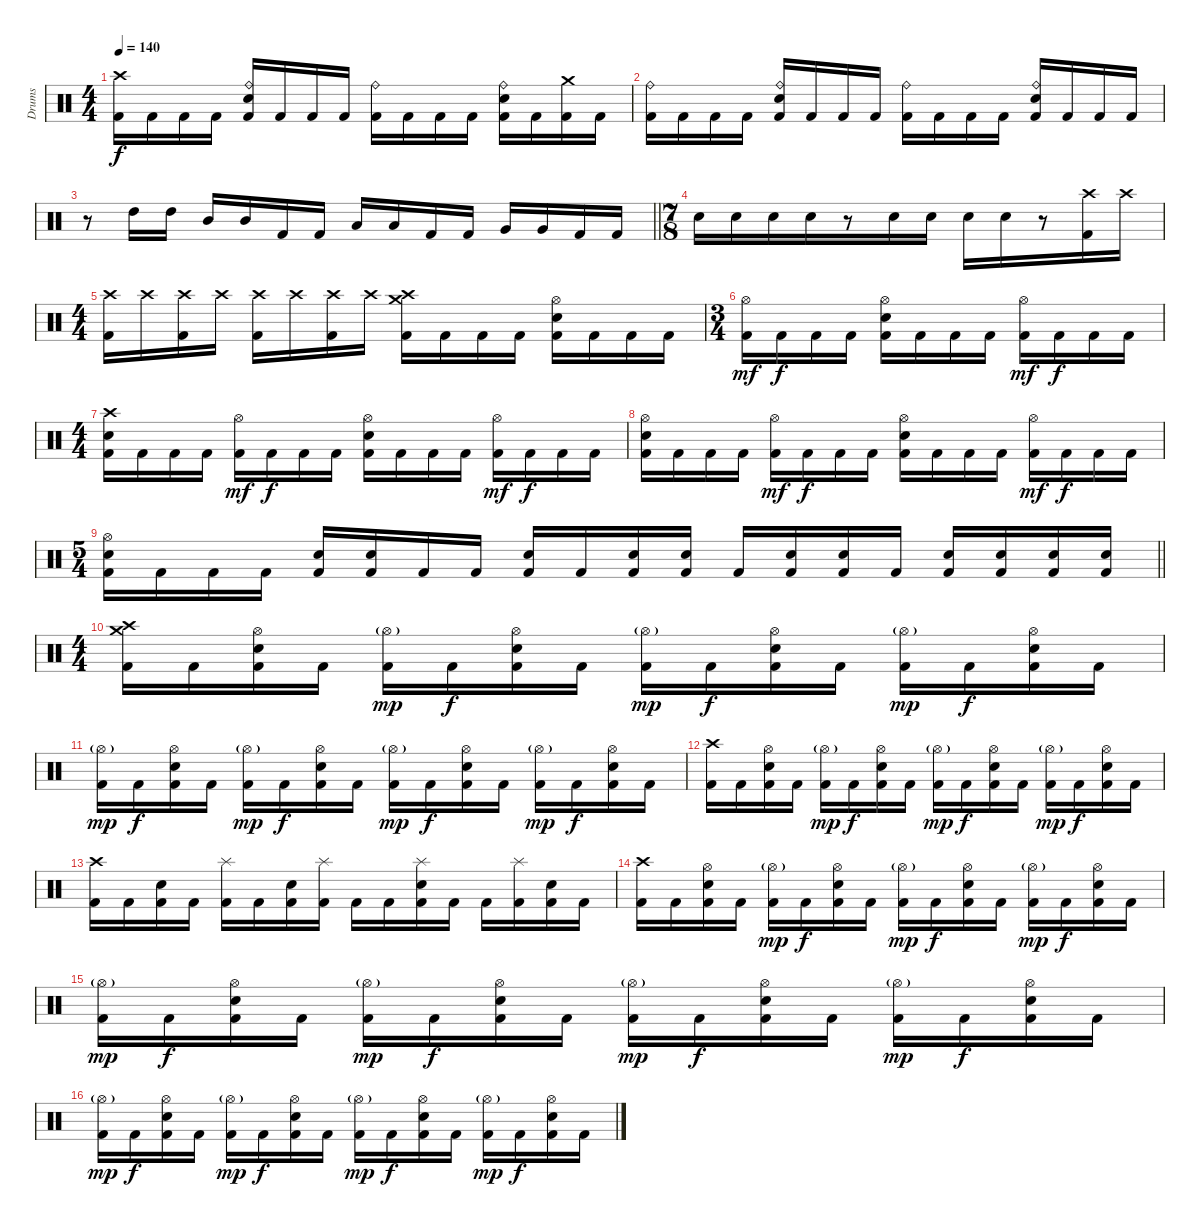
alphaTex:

\track ("Drums" "Drums") {instrument percussion}
\staff {score}
\articulation defaults
\ts (4 4)
\tempo 140
\clef neutral
\ks c
("Crash high (hit)" "Kick (hit) 2").16{dy f} "Kick (hit) 2".16 "Kick (hit) 2".16 "Kick (hit) 2".16 ("Ride (bell)" "Electric Snare (hit)" "Kick (hit) 2").16 "Kick (hit) 2".16 "Kick (hit) 2".16 "Kick (hit) 2".16 ("Ride (bell)" "Kick (hit) 2").16 "Kick (hit) 2".16 "Kick (hit) 2".16 "Kick (hit) 2".16 ("Ride (bell)" "Electric Snare (hit)" "Kick (hit) 2").16 "Kick (hit) 2".16 ("Crash medium (hit)" "Kick (hit) 2").16 "Kick (hit) 2".16 |
("Ride (bell)" "Kick (hit) 2").16 "Kick (hit) 2".16 "Kick (hit) 2".16 "Kick (hit) 2".16 ("Ride (bell)" "Electric Snare (hit)" "Kick (hit) 2").16 "Kick (hit) 2".16 "Kick (hit) 2".16 "Kick (hit) 2".16 ("Ride (bell)" "Kick (hit) 2").16 "Kick (hit) 2".16 "Kick (hit) 2".16 "Kick (hit) 2".16 ("Ride (bell)" "Electric Snare (hit)" "Kick (hit) 2").16 "Kick (hit) 2".16 "Kick (hit) 2".16 "Kick (hit) 2".16 |
\barLineRight lightlight
r.8 "High Tom (hit)".16 "High Tom (hit)".16 "Mid Tom (hit)".16 "Mid Tom (hit)".16 "Kick (hit) 2".16 "Kick (hit) 2".16 "Low Tom (hit)".16 "Low Tom (hit)".16 "Kick (hit) 2".16 "Kick (hit) 2".16 "Very Low Tom (hit)".16 "Very Low Tom (hit)".16 "Kick (hit) 2".16 "Kick (hit) 2".16 |
\ts (7 8)
"Electric Snare (hit)".16 "Electric Snare (hit)".16 "Electric Snare (hit)".16 "Electric Snare (hit)".16 r.8 "Electric Snare (hit)".16 "Electric Snare (hit)".16 "Electric Snare (hit)".16 "Electric Snare (hit)".16 r.8 ("Crash high (hit)" "Kick (hit) 2").16{volume 16} "Crash high (hit)".16{volume 0} |
\ts (4 4)
("Crash high (hit)" "Kick (hit) 2").16{volume 16} "Crash high (hit)".16{volume 0} ("Crash high (hit)" "Kick (hit) 2").16{volume 16} "Crash high (hit)".16{volume 0} ("Crash high (hit)" "Kick (hit) 2").16{volume 16} "Crash high (hit)".16{volume 0} ("Crash high (hit)" "Kick (hit) 2").16{volume 16} "Crash high (hit)".16{volume 0} ("Crash high (hit)" "Crash medium (hit)" "Kick (hit) 2").16{volume 16} "Kick (hit) 2".16 "Kick (hit) 2".16 "Kick (hit) 2".16 ("Hi-Hat (open)" "Electric Snare (hit)" "Kick (hit) 2").16 "Kick (hit) 2".16 "Kick (hit) 2".16 "Kick (hit) 2".16 |
\ts (3 4)
("Hi-Hat (open)" "Kick (hit) 2").16{dy mf} "Kick (hit) 2".16{dy f} "Kick (hit) 2".16 "Kick (hit) 2".16 ("Hi-Hat (open)" "Electric Snare (hit)" "Kick (hit) 2").16 "Kick (hit) 2".16 "Kick (hit) 2".16 "Kick (hit) 2".16 ("Hi-Hat (open)" "Kick (hit) 2").16{dy mf} "Kick (hit) 2".16{dy f} "Kick (hit) 2".16 "Kick (hit) 2".16 |
\ts (4 4)
("Crash high (hit)" "Electric Snare (hit)" "Kick (hit) 2").16 "Kick (hit) 2".16 "Kick (hit) 2".16 "Kick (hit) 2".16 ("Hi-Hat (open)" "Kick (hit) 2").16{dy mf} "Kick (hit) 2".16{dy f} "Kick (hit) 2".16 "Kick (hit) 2".16 ("Hi-Hat (open)" "Electric Snare (hit)" "Kick (hit) 2").16 "Kick (hit) 2".16 "Kick (hit) 2".16 "Kick (hit) 2".16 ("Hi-Hat (open)" "Kick (hit) 2").16{dy mf} "Kick (hit) 2".16{dy f} "Kick (hit) 2".16 "Kick (hit) 2".16 |
("Hi-Hat (open)" "Electric Snare (hit)" "Kick (hit) 2").16 "Kick (hit) 2".16 "Kick (hit) 2".16 "Kick (hit) 2".16 ("Hi-Hat (open)" "Kick (hit) 2").16{dy mf} "Kick (hit) 2".16{dy f} "Kick (hit) 2".16 "Kick (hit) 2".16 ("Hi-Hat (open)" "Electric Snare (hit)" "Kick (hit) 2").16 "Kick (hit) 2".16 "Kick (hit) 2".16 "Kick (hit) 2".16 ("Hi-Hat (open)" "Kick (hit) 2").16{dy mf} "Kick (hit) 2".16{dy f} "Kick (hit) 2".16 "Kick (hit) 2".16 |
\ts (5 4)
\barLineRight lightlight
("Hi-Hat (open)" "Electric Snare (hit)" "Kick (hit) 2").16 "Kick (hit) 2".16 "Kick (hit) 2".16 "Kick (hit) 2".16 ("Electric Snare (hit)" "Kick (hit) 2").16 ("Electric Snare (hit)" "Kick (hit) 2").16 "Kick (hit) 2".16 "Kick (hit) 2".16 ("Electric Snare (hit)" "Kick (hit) 2").16 "Kick (hit) 2".16 ("Electric Snare (hit)" "Kick (hit) 2").16 ("Electric Snare (hit)" "Kick (hit) 2").16 "Kick (hit) 2".16 ("Electric Snare (hit)" "Kick (hit) 2").16 ("Electric Snare (hit)" "Kick (hit) 2").16 "Kick (hit) 2".16 ("Electric Snare (hit)" "Kick (hit) 2").16 ("Electric Snare (hit)" "Kick (hit) 2").16 ("Electric Snare (hit)" "Kick (hit) 2").16 ("Electric Snare (hit)" "Kick (hit) 2").16 |
\ts (4 4)
("Crash high (hit)" "Crash medium (hit)" "Kick (hit) 2").16 "Kick (hit) 2".16 ("Hi-Hat (open)" "Electric Snare (hit)" "Kick (hit) 2").16 "Kick (hit) 2".16 ("Hi-Hat (open)"{g} "Kick (hit) 2").16{dy mp} "Kick (hit) 2".16{dy f} ("Hi-Hat (open)" "Electric Snare (hit)" "Kick (hit) 2").16 "Kick (hit) 2".16 ("Hi-Hat (open)"{g} "Kick (hit) 2").16{dy mp} "Kick (hit) 2".16{dy f} ("Hi-Hat (open)" "Electric Snare (hit)" "Kick (hit) 2").16 "Kick (hit) 2".16 ("Hi-Hat (open)"{g} "Kick (hit) 2").16{dy mp} "Kick (hit) 2".16{dy f} ("Hi-Hat (open)" "Electric Snare (hit)" "Kick (hit) 2").16 "Kick (hit) 2".16 |
("Hi-Hat (open)"{g} "Kick (hit) 2").16{dy mp} "Kick (hit) 2".16{dy f} ("Hi-Hat (open)" "Electric Snare (hit)" "Kick (hit) 2").16 "Kick (hit) 2".16 ("Hi-Hat (open)"{g} "Kick (hit) 2").16{dy mp} "Kick (hit) 2".16{dy f} ("Hi-Hat (open)" "Electric Snare (hit)" "Kick (hit) 2").16 "Kick (hit) 2".16 ("Hi-Hat (open)"{g} "Kick (hit) 2").16{dy mp} "Kick (hit) 2".16{dy f} ("Hi-Hat (open)" "Electric Snare (hit)" "Kick (hit) 2").16 "Kick (hit) 2".16 ("Hi-Hat (open)"{g} "Kick (hit) 2").16{dy mp} "Kick (hit) 2".16{dy f} ("Hi-Hat (open)" "Electric Snare (hit)" "Kick (hit) 2").16 "Kick (hit) 2".16 |
("Crash high (hit)" "Kick (hit) 2").16 "Kick (hit) 2".16 ("Hi-Hat (open)" "Electric Snare (hit)" "Kick (hit) 2").16 "Kick (hit) 2".16 ("Hi-Hat (open)"{g} "Kick (hit) 2").16{dy mp} "Kick (hit) 2".16{dy f} ("Hi-Hat (open)" "Electric Snare (hit)" "Kick (hit) 2").16 "Kick (hit) 2".16 ("Hi-Hat (open)"{g} "Kick (hit) 2").16{dy mp} "Kick (hit) 2".16{dy f} ("Hi-Hat (open)" "Electric Snare (hit)" "Kick (hit) 2").16 "Kick (hit) 2".16 ("Hi-Hat (open)"{g} "Kick (hit) 2").16{dy mp} "Kick (hit) 2".16{dy f} ("Hi-Hat (open)" "Electric Snare (hit)" "Kick (hit) 2").16 "Kick (hit) 2".16 |
("Crash high (hit)" "Kick (hit) 2").16 "Kick (hit) 2".16 ("Electric Snare (hit)" "Kick (hit) 2").16 "Kick (hit) 2".16 ("Splash (hit)" "Kick (hit) 2").16 "Kick (hit) 2".16 ("Electric Snare (hit)" "Kick (hit) 2").16 ("Splash (hit)" "Kick (hit) 2").16 "Kick (hit) 2".16 "Kick (hit) 2".16 ("Splash (hit)" "Electric Snare (hit)" "Kick (hit) 2").16 "Kick (hit) 2".16 "Kick (hit) 2".16 ("Splash (hit)" "Kick (hit) 2").16 ("Electric Snare (hit)" "Kick (hit) 2").16 "Kick (hit) 2".16 |
("Crash high (hit)" "Kick (hit) 2").16 "Kick (hit) 2".16 ("Hi-Hat (open)" "Electric Snare (hit)" "Kick (hit) 2").16 "Kick (hit) 2".16 ("Hi-Hat (open)"{g} "Kick (hit) 2").16{dy mp} "Kick (hit) 2".16{dy f} ("Hi-Hat (open)" "Electric Snare (hit)" "Kick (hit) 2").16 "Kick (hit) 2".16 ("Hi-Hat (open)"{g} "Kick (hit) 2").16{dy mp} "Kick (hit) 2".16{dy f} ("Hi-Hat (open)" "Electric Snare (hit)" "Kick (hit) 2").16 "Kick (hit) 2".16 ("Hi-Hat (open)"{g} "Kick (hit) 2").16{dy mp} "Kick (hit) 2".16{dy f} ("Hi-Hat (open)" "Electric Snare (hit)" "Kick (hit) 2").16 "Kick (hit) 2".16 |
("Hi-Hat (open)"{g} "Kick (hit) 2").16{dy mp} "Kick (hit) 2".16{dy f} ("Hi-Hat (open)" "Electric Snare (hit)" "Kick (hit) 2").16 "Kick (hit) 2".16 ("Hi-Hat (open)"{g} "Kick (hit) 2").16{dy mp} "Kick (hit) 2".16{dy f} ("Hi-Hat (open)" "Electric Snare (hit)" "Kick (hit) 2").16 "Kick (hit) 2".16 ("Hi-Hat (open)"{g} "Kick (hit) 2").16{dy mp} "Kick (hit) 2".16{dy f} ("Hi-Hat (open)" "Electric Snare (hit)" "Kick (hit) 2").16 "Kick (hit) 2".16 ("Hi-Hat (open)"{g} "Kick (hit) 2").16{dy mp} "Kick (hit) 2".16{dy f} ("Hi-Hat (open)" "Electric Snare (hit)" "Kick (hit) 2").16 "Kick (hit) 2".16 |
("Hi-Hat (open)"{g} "Kick (hit) 2").16{dy mp} "Kick (hit) 2".16{dy f} ("Hi-Hat (open)" "Electric Snare (hit)" "Kick (hit) 2").16 "Kick (hit) 2".16 ("Hi-Hat (open)"{g} "Kick (hit) 2").16{dy mp} "Kick (hit) 2".16{dy f} ("Hi-Hat (open)" "Electric Snare (hit)" "Kick (hit) 2").16 "Kick (hit) 2".16 ("Hi-Hat (open)"{g} "Kick (hit) 2").16{dy mp} "Kick (hit) 2".16{dy f} ("Hi-Hat (open)" "Electric Snare (hit)" "Kick (hit) 2").16 "Kick (hit) 2".16 ("Hi-Hat (open)"{g} "Kick (hit) 2").16{dy mp} "Kick (hit) 2".16{dy f} ("Hi-Hat (open)" "Electric Snare (hit)" "Kick (hit) 2").16 "Kick (hit) 2".16
